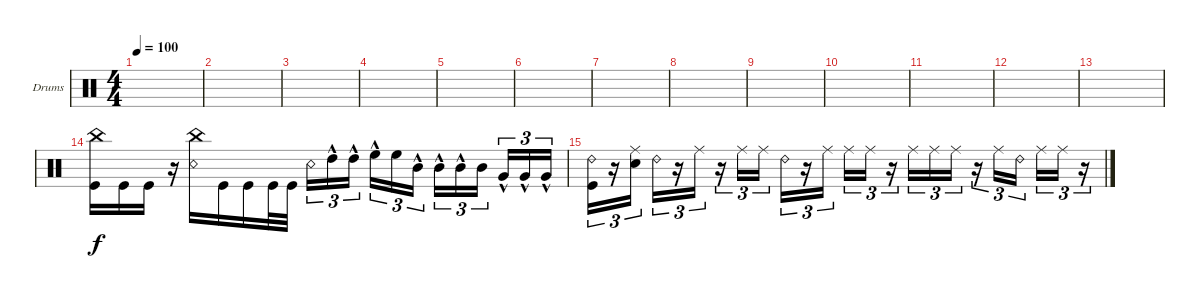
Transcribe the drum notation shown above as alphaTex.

\defaultSystemsLayout 4
\bracketExtendMode groupsimilarinstruments
\firstSystemTrackNameOrientation horizontal
\otherSystemsTrackNameOrientation horizontal
\track ("Drumkit" "Drums") {instrument percussion}
\staff {score}
\articulation defaults
\ts (4 4)
\tempo 100
\clef neutral
\ks c
|
|
|
|
|
|
|
|
|
|
|
|
|
("China (hit)" "Kick (hit)").16 "Kick (hit)".16 "Kick (hit)".16 r.16 ("Snare (rim shot)" "China (hit)").16 "Kick (hit)".16 "Kick (hit)".16 "Kick (hit)".32 "Kick (hit)".32 "Snare (rim shot)".16{tu (3 2)} "High Tom (hit)"{hac}.16{tu (3 2)} "High Tom (hit)"{hac}.16{tu (3 2)} "High Floor Tom (hit)"{hac}.16{tu (3 2)} "High Floor Tom (hit)".16{tu (3 2)} "Mid Tom (hit)"{hac}.16{tu (3 2)} "Mid Tom (hit)"{hac}.16{tu (3 2)} "Mid Tom (hit)"{hac}.16{tu (3 2)} "Mid Tom (hit)".16{tu (3 2)} "Very Low Tom (hit)"{hac}.16{tu (3 2)} "Very Low Tom (hit)"{hac}.16{tu (3 2)} "Very Low Tom (hit)"{hac}.16{tu (3 2)} |
("Ride (bell) 2" "Kick (hit)").16{tu (3 2)} r.16{tu (3 2)} ("Ride (middle)" "Snare (hit) 2").16{tu (3 2)} "Ride (bell) 2".16{tu (3 2)} r.16{tu (3 2)} "Ride (middle)".16{tu (3 2)} r.16{tu (3 2)} "Ride (middle)".16{tu (3 2)} "Ride (middle)".16{tu (3 2)} "Ride (bell) 2".16{tu (3 2)} r.16{tu (3 2)} "Ride (middle)".16{tu (3 2)} "Ride (middle)".16{tu (3 2)} "Ride (middle)".16{tu (3 2)} r.16{tu (3 2)} "Ride (middle)".16{tu (3 2)} "Ride (middle)".16{tu (3 2)} "Ride (middle)".16{tu (3 2)} r.16{tu (3 2)} "Ride (middle)".16{tu (3 2)} "Ride (bell) 2".16{tu (3 2)} "Ride (middle)".16{tu (3 2)} "Ride (middle)".16{tu (3 2)} r.16{tu (3 2)}
